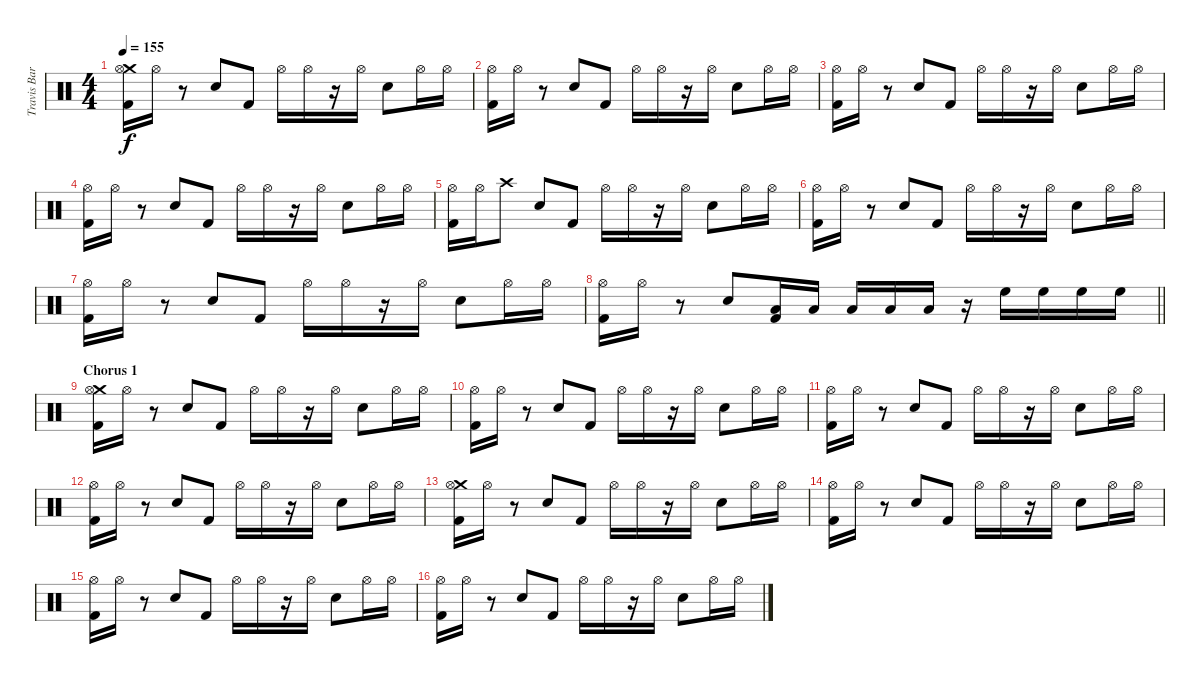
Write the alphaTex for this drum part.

\track ("Travis Barker Drums" "Travis Bar") {mute instrument percussion}
\staff {score}
\articulation defaults
\ts (4 4)
\tempo 155
\clef neutral
\ks c
("Crash medium (hit)" "Hi-Hat (open)" "Kick (hit) 2").16{dy f} "Hi-Hat (open)".16 r.8 "Electric Snare (hit)".8 "Kick (hit) 2".8 "Hi-Hat (open)".16 "Hi-Hat (open)".16 r.16 "Hi-Hat (open)".16 "Electric Snare (hit)".8 "Hi-Hat (open)".16 "Hi-Hat (open)".16 |
("Hi-Hat (open)" "Kick (hit) 2").16 "Hi-Hat (open)".16 r.8 "Electric Snare (hit)".8 "Kick (hit) 2".8 "Hi-Hat (open)".16 "Hi-Hat (open)".16 r.16 "Hi-Hat (open)".16 "Electric Snare (hit)".8 "Hi-Hat (open)".16 "Hi-Hat (open)".16 |
("Hi-Hat (open)" "Kick (hit) 2").16 "Hi-Hat (open)".16 r.8 "Electric Snare (hit)".8 "Kick (hit) 2".8 "Hi-Hat (open)".16 "Hi-Hat (open)".16 r.16 "Hi-Hat (open)".16 "Electric Snare (hit)".8 "Hi-Hat (open)".16 "Hi-Hat (open)".16 |
("Hi-Hat (open)" "Kick (hit) 2").16 "Hi-Hat (open)".16 r.8 "Electric Snare (hit)".8 "Kick (hit) 2".8 "Hi-Hat (open)".16 "Hi-Hat (open)".16 r.16 "Hi-Hat (open)".16 "Electric Snare (hit)".8 "Hi-Hat (open)".16 "Hi-Hat (open)".16 |
("Hi-Hat (open)" "Kick (hit) 2").16 "Hi-Hat (open)".16 "Crash high (hit)".8 "Electric Snare (hit)".8 "Kick (hit) 2".8 "Hi-Hat (open)".16 "Hi-Hat (open)".16 r.16 "Hi-Hat (open)".16 "Electric Snare (hit)".8 "Hi-Hat (open)".16 "Hi-Hat (open)".16 |
("Hi-Hat (open)" "Kick (hit) 2").16 "Hi-Hat (open)".16 r.8 "Electric Snare (hit)".8 "Kick (hit) 2".8 "Hi-Hat (open)".16 "Hi-Hat (open)".16 r.16 "Hi-Hat (open)".16 "Electric Snare (hit)".8 "Hi-Hat (open)".16 "Hi-Hat (open)".16 |
("Hi-Hat (open)" "Kick (hit) 2").16 "Hi-Hat (open)".16 r.8 "Electric Snare (hit)".8 "Kick (hit) 2".8 "Hi-Hat (open)".16 "Hi-Hat (open)".16 r.16 "Hi-Hat (open)".16 "Electric Snare (hit)".8 "Hi-Hat (open)".16 "Hi-Hat (open)".16 |
\barLineRight lightlight
("Hi-Hat (open)" "Kick (hit) 2").16 "Hi-Hat (open)".16 r.8 "Electric Snare (hit)".8 ("Low Tom (hit)" "Kick (hit) 2").16 "Low Tom (hit)".16 "Low Tom (hit)".16 "Low Tom (hit)".16 "Low Tom (hit)".16 r.16 "High Floor Tom (hit)".16 "High Floor Tom (hit)".16 "High Floor Tom (hit)".16 "High Floor Tom (hit)".16 |
\section ("" "Chorus 1")
("Crash medium (hit)" "Hi-Hat (open)" "Kick (hit) 2").16 "Hi-Hat (open)".16 r.8 "Electric Snare (hit)".8 "Kick (hit) 2".8 "Hi-Hat (open)".16 "Hi-Hat (open)".16 r.16 "Hi-Hat (open)".16 "Electric Snare (hit)".8 "Hi-Hat (open)".16 "Hi-Hat (open)".16 |
("Hi-Hat (open)" "Kick (hit) 2").16 "Hi-Hat (open)".16 r.8 "Electric Snare (hit)".8 "Kick (hit) 2".8 "Hi-Hat (open)".16 "Hi-Hat (open)".16 r.16 "Hi-Hat (open)".16 "Electric Snare (hit)".8 "Hi-Hat (open)".16 "Hi-Hat (open)".16 |
("Hi-Hat (open)" "Kick (hit) 2").16 "Hi-Hat (open)".16 r.8 "Electric Snare (hit)".8 "Kick (hit) 2".8 "Hi-Hat (open)".16 "Hi-Hat (open)".16 r.16 "Hi-Hat (open)".16 "Electric Snare (hit)".8 "Hi-Hat (open)".16 "Hi-Hat (open)".16 |
("Hi-Hat (open)" "Kick (hit) 2").16 "Hi-Hat (open)".16 r.8 "Electric Snare (hit)".8 "Kick (hit) 2".8 "Hi-Hat (open)".16 "Hi-Hat (open)".16 r.16 "Hi-Hat (open)".16 "Electric Snare (hit)".8 "Hi-Hat (open)".16 "Hi-Hat (open)".16 |
("Crash medium (hit)" "Hi-Hat (open)" "Kick (hit) 2").16 "Hi-Hat (open)".16 r.8 "Electric Snare (hit)".8 "Kick (hit) 2".8 "Hi-Hat (open)".16 "Hi-Hat (open)".16 r.16 "Hi-Hat (open)".16 "Electric Snare (hit)".8 "Hi-Hat (open)".16 "Hi-Hat (open)".16 |
("Hi-Hat (open)" "Kick (hit) 2").16 "Hi-Hat (open)".16 r.8 "Electric Snare (hit)".8 "Kick (hit) 2".8 "Hi-Hat (open)".16 "Hi-Hat (open)".16 r.16 "Hi-Hat (open)".16 "Electric Snare (hit)".8 "Hi-Hat (open)".16 "Hi-Hat (open)".16 |
("Hi-Hat (open)" "Kick (hit) 2").16 "Hi-Hat (open)".16 r.8 "Electric Snare (hit)".8 "Kick (hit) 2".8 "Hi-Hat (open)".16 "Hi-Hat (open)".16 r.16 "Hi-Hat (open)".16 "Electric Snare (hit)".8 "Hi-Hat (open)".16 "Hi-Hat (open)".16 |
("Hi-Hat (open)" "Kick (hit) 2").16 "Hi-Hat (open)".16 r.8 "Electric Snare (hit)".8 "Kick (hit) 2".8 "Hi-Hat (open)".16 "Hi-Hat (open)".16 r.16 "Hi-Hat (open)".16 "Electric Snare (hit)".8 "Hi-Hat (open)".16 "Hi-Hat (open)".16
